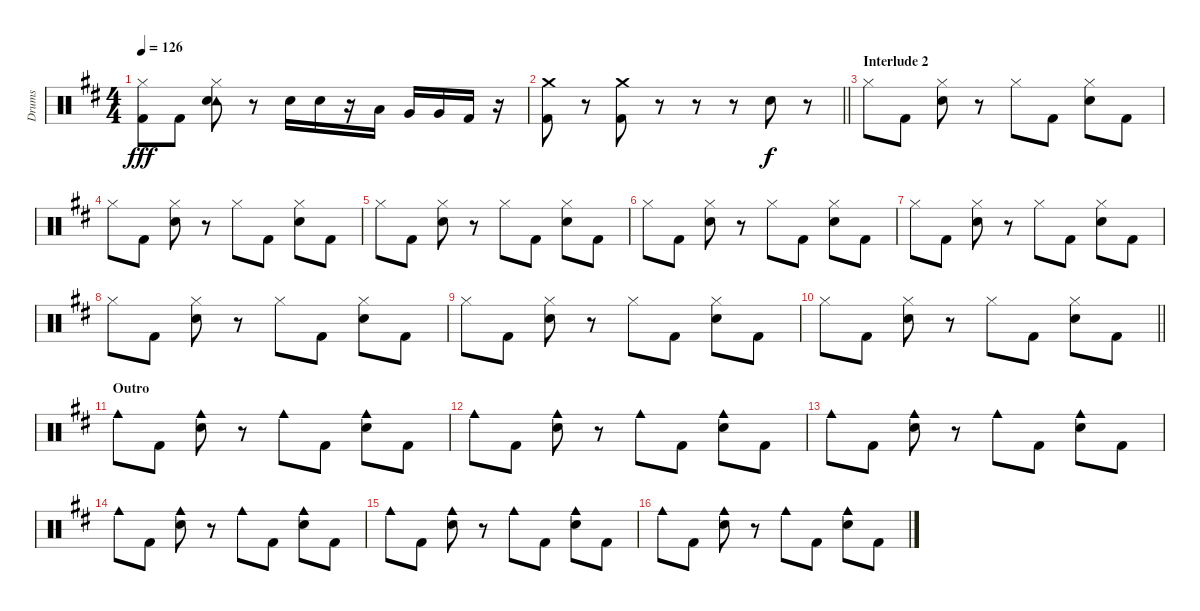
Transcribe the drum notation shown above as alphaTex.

\track ("Drums" "Drums") {instrument percussion}
\staff {score}
\articulation defaults
\ts (4 4)
\tempo 126
\clef neutral
\ks d
("Hi-Hat (closed)" "Kick (hit) 2").8{dy fff} "Kick (hit) 2".8 ("Hi-Hat (closed)" "Tambourine (hit)" "Snare (hit) 2").8 r.8 "Snare (hit) 2".16 "Snare (hit) 2".16 r.16 "Low Tom (hit)".16 "Very Low Tom (hit)".16 "Very Low Tom (hit)".16 "Kick (hit) 2".16 r.16 |
\barLineRight lightlight
("Crash medium (hit)" "Kick (hit) 2").8 r.8 ("Crash medium (hit)" "Kick (hit) 2").8 r.8 r.8 r.8 "Snare (hit) 2".8{dy f} r.8 |
\section ("" "Interlude 2")
"Hi-Hat (closed)".8 "Kick (hit) 2".8 ("Hi-Hat (closed)" "Snare (hit) 2").8 r.8 "Hi-Hat (closed)".8 "Kick (hit) 2".8 ("Hi-Hat (closed)" "Snare (hit) 2").8 "Kick (hit) 2".8 |
"Hi-Hat (closed)".8 "Kick (hit) 2".8 ("Hi-Hat (closed)" "Snare (hit) 2").8 r.8 "Hi-Hat (closed)".8 "Kick (hit) 2".8 ("Hi-Hat (closed)" "Snare (hit) 2").8 "Kick (hit) 2".8 |
"Hi-Hat (closed)".8 "Kick (hit) 2".8 ("Hi-Hat (closed)" "Snare (hit) 2").8 r.8 "Hi-Hat (closed)".8 "Kick (hit) 2".8 ("Hi-Hat (closed)" "Snare (hit) 2").8 "Kick (hit) 2".8 |
"Hi-Hat (closed)".8 "Kick (hit) 2".8 ("Hi-Hat (closed)" "Snare (hit) 2").8 r.8 "Hi-Hat (closed)".8 "Kick (hit) 2".8 ("Hi-Hat (closed)" "Snare (hit) 2").8 "Kick (hit) 2".8 |
"Hi-Hat (closed)".8 "Kick (hit) 2".8 ("Hi-Hat (closed)" "Snare (hit) 2").8 r.8 "Hi-Hat (closed)".8 "Kick (hit) 2".8 ("Hi-Hat (closed)" "Snare (hit) 2").8 "Kick (hit) 2".8 |
"Hi-Hat (closed)".8 "Kick (hit) 2".8 ("Hi-Hat (closed)" "Snare (hit) 2").8 r.8 "Hi-Hat (closed)".8 "Kick (hit) 2".8 ("Hi-Hat (closed)" "Snare (hit) 2").8 "Kick (hit) 2".8 |
"Hi-Hat (closed)".8 "Kick (hit) 2".8 ("Hi-Hat (closed)" "Snare (hit) 2").8 r.8 "Hi-Hat (closed)".8 "Kick (hit) 2".8 ("Hi-Hat (closed)" "Snare (hit) 2").8 "Kick (hit) 2".8 |
\barLineRight lightlight "Hi-Hat (closed)".8 "Kick (hit) 2".8
("Hi-Hat (closed)" "Snare (hit) 2").8 r.8 "Hi-Hat (closed)".8 "Kick (hit) 2".8 ("Hi-Hat (closed)" "Snare (hit) 2").8 "Kick (hit) 2".8 |
\section ("" "Outro")
"Cowbell medium (hit)".8 "Kick (hit) 2".8 ("Cowbell medium (hit)" "Snare (hit) 2").8 r.8 "Cowbell medium (hit)".8 "Kick (hit) 2".8 ("Cowbell medium (hit)" "Snare (hit) 2").8 "Kick (hit) 2".8 |
"Cowbell medium (hit)".8 "Kick (hit) 2".8 ("Cowbell medium (hit)" "Snare (hit) 2").8 r.8 "Cowbell medium (hit)".8 "Kick (hit) 2".8 ("Cowbell medium (hit)" "Snare (hit) 2").8 "Kick (hit) 2".8 |
"Cowbell medium (hit)".8 "Kick (hit) 2".8 ("Cowbell medium (hit)" "Snare (hit) 2").8 r.8 "Cowbell medium (hit)".8 "Kick (hit) 2".8 ("Cowbell medium (hit)" "Snare (hit) 2").8 "Kick (hit) 2".8 |
"Cowbell medium (hit)".8 "Kick (hit) 2".8 ("Cowbell medium (hit)" "Snare (hit) 2").8 r.8 "Cowbell medium (hit)".8 "Kick (hit) 2".8 ("Cowbell medium (hit)" "Snare (hit) 2").8 "Kick (hit) 2".8 |
"Cowbell medium (hit)".8 "Kick (hit) 2".8 ("Cowbell medium (hit)" "Snare (hit) 2").8 r.8 "Cowbell medium (hit)".8 "Kick (hit) 2".8 ("Cowbell medium (hit)" "Snare (hit) 2").8 "Kick (hit) 2".8 |
"Cowbell medium (hit)".8 "Kick (hit) 2".8 ("Cowbell medium (hit)" "Snare (hit) 2").8 r.8 "Cowbell medium (hit)".8 "Kick (hit) 2".8 ("Cowbell medium (hit)" "Snare (hit) 2").8 "Kick (hit) 2".8
